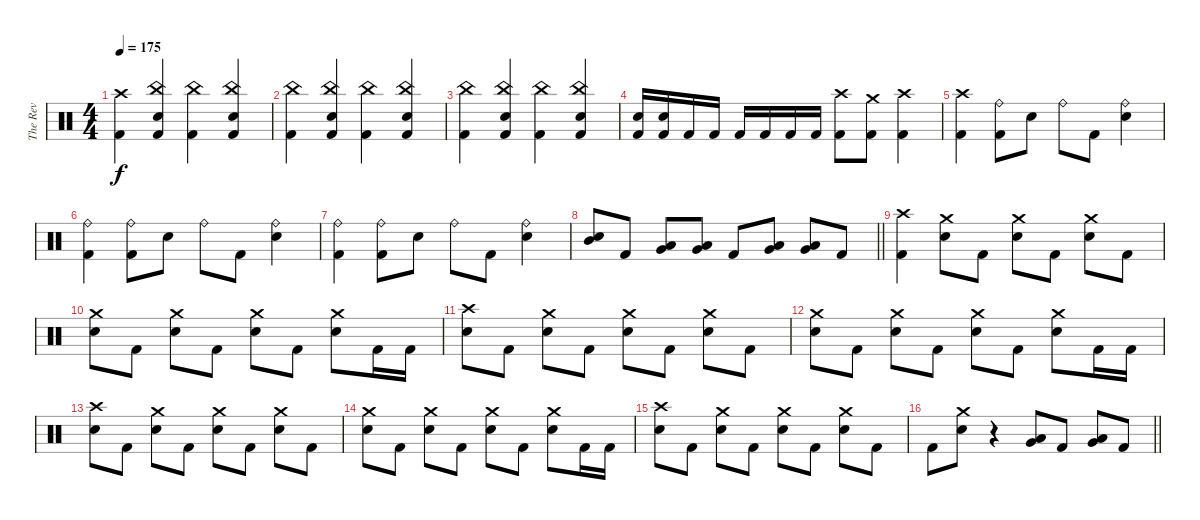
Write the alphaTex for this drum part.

\track ("The Rev" "The Rev") {instrument percussion}
\staff {score}
\articulation defaults
\ts (4 4)
\tempo 175
\clef neutral
\ks c
("Crash high (hit)" "Kick (hit) 2").4{dy f} ("China (hit)" "Snare (hit) 2" "Kick (hit) 2").4 ("China (hit)" "Kick (hit) 2").4 ("China (hit)" "Snare (hit) 2" "Kick (hit) 2").4 |
("China (hit)" "Kick (hit) 2").4 ("China (hit)" "Snare (hit) 2" "Kick (hit) 2").4 ("China (hit)" "Kick (hit) 2").4 ("China (hit)" "Snare (hit) 2" "Kick (hit) 2").4 |
("China (hit)" "Kick (hit) 2").4 ("China (hit)" "Snare (hit) 2" "Kick (hit) 2").4 ("China (hit)" "Kick (hit) 2").4 ("China (hit)" "Snare (hit) 2" "Kick (hit) 2").4 |
("Snare (hit) 2" "Kick (hit) 2").16 ("Snare (hit) 2" "Kick (hit) 2").16 "Kick (hit) 2".16 "Kick (hit) 2".16 "Kick (hit) 2".16 "Kick (hit) 2".16 "Kick (hit) 2".16 "Kick (hit) 2".16 ("Crash high (hit)" "Kick (hit) 2").8 ("Crash medium (hit)" "Kick (hit) 2").8 ("Crash high (hit)" "Kick (hit) 2").4 |
("Crash high (hit)" "Kick (hit) 2").4 ("Ride (bell)" "Kick (hit) 2").8 "Snare (hit) 2".8 "Ride (bell)".8 "Kick (hit) 2".8 ("Ride (bell)" "Snare (hit) 2").4 |
("Ride (bell)" "Kick (hit) 2").4 ("Ride (bell)" "Kick (hit) 2").8 "Snare (hit) 2".8 "Ride (bell)".8 "Kick (hit) 2".8 ("Ride (bell)" "Snare (hit) 2").4 |
("Ride (bell)" "Kick (hit) 2").4 ("Ride (bell)" "Kick (hit) 2").8 "Snare (hit) 2".8 "Ride (bell)".8 "Kick (hit) 2".8 ("Ride (bell)" "Snare (hit) 2").4 |
\barLineRight lightlight
("Mid Tom (hit)" "Snare (hit) 2").8 "Kick (hit) 2".8 ("Low Tom (hit)" "Very Low Tom (hit)").8 ("Low Tom (hit)" "Very Low Tom (hit)").8 "Kick (hit) 2".8 ("Very Low Tom (hit)" "Low Floor Tom (hit)").8 ("Very Low Tom (hit)" "Low Floor Tom (hit)").8 "Kick (hit) 2".8 |
("Crash high (hit)" "Kick (hit) 2").4 ("Crash medium (hit)" "Snare (hit) 2").8 "Kick (hit) 2".8 ("Crash medium (hit)" "Snare (hit) 2").8 "Kick (hit) 2".8 ("Crash medium (hit)" "Snare (hit) 2").8 "Kick (hit) 2".8 |
("Crash medium (hit)" "Snare (hit) 2").8 "Kick (hit) 2".8 ("Crash medium (hit)" "Snare (hit) 2").8 "Kick (hit) 2".8 ("Crash medium (hit)" "Snare (hit) 2").8 "Kick (hit) 2".8 ("Crash medium (hit)" "Snare (hit) 2").8 "Kick (hit) 2".16 "Kick (hit) 2".16 |
("Crash high (hit)" "Snare (hit) 2").8 "Kick (hit) 2".8 ("Crash medium (hit)" "Snare (hit) 2").8 "Kick (hit) 2".8 ("Crash medium (hit)" "Snare (hit) 2").8 "Kick (hit) 2".8 ("Crash medium (hit)" "Snare (hit) 2").8 "Kick (hit) 2".8 |
("Crash medium (hit)" "Snare (hit) 2").8 "Kick (hit) 2".8 ("Crash medium (hit)" "Snare (hit) 2").8 "Kick (hit) 2".8 ("Crash medium (hit)" "Snare (hit) 2").8 "Kick (hit) 2".8 ("Crash medium (hit)" "Snare (hit) 2").8 "Kick (hit) 2".16 "Kick (hit) 2".16 |
("Crash high (hit)" "Snare (hit) 2").8 "Kick (hit) 2".8 ("Crash medium (hit)" "Snare (hit) 2").8 "Kick (hit) 2".8 ("Crash medium (hit)" "Snare (hit) 2").8 "Kick (hit) 2".8 ("Crash medium (hit)" "Snare (hit) 2").8 "Kick (hit) 2".8 |
("Crash medium (hit)" "Snare (hit) 2").8 "Kick (hit) 2".8 ("Crash medium (hit)" "Snare (hit) 2").8 "Kick (hit) 2".8 ("Crash medium (hit)" "Snare (hit) 2").8 "Kick (hit) 2".8 ("Crash medium (hit)" "Snare (hit) 2").8 "Kick (hit) 2".16 "Kick (hit) 2".16 |
("Crash high (hit)" "Snare (hit) 2").8 "Kick (hit) 2".8 ("Crash medium (hit)" "Snare (hit) 2").8 "Kick (hit) 2".8 ("Crash medium (hit)" "Snare (hit) 2").8 "Kick (hit) 2".8 ("Crash medium (hit)" "Snare (hit) 2").8 "Kick (hit) 2".8 |
\barLineRight lightlight "Kick (hit) 2".8
("Crash medium (hit)" "Snare (hit) 2").8 r.4 ("Low Tom (hit)" "Very Low Tom (hit)").8 "Kick (hit) 2".8 ("Very Low Tom (hit)" "Low Floor Tom (hit)").8 "Kick (hit) 2".8
